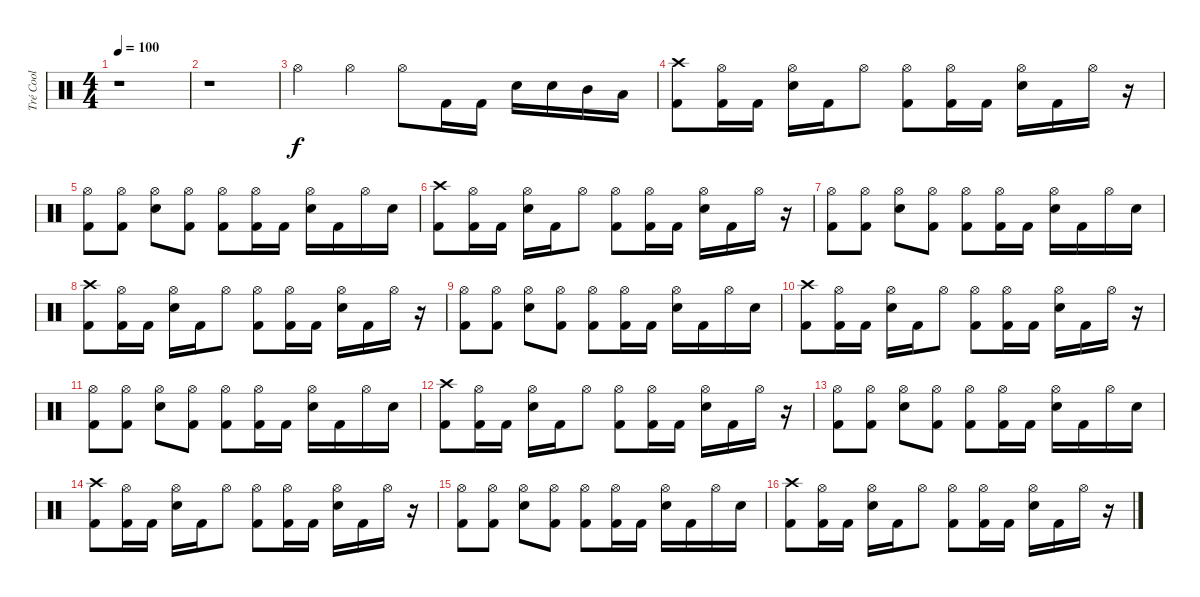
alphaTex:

\track ("Tré Cool" "Tré Cool") {instrument percussion}
\staff {score}
\articulation defaults
\ts (4 4)
\tempo 100
\clef neutral
\ks c
r.1{dy f} |
r.1 |
"Hi-Hat (open)".4 "Hi-Hat (open)".4 "Hi-Hat (open)".8 "Kick (hit) 2".16 "Kick (hit) 2".16 "Electric Snare (hit)".16 "Electric Snare (hit)".16 "Mid Tom (hit)".16 "Low Tom (hit)".16 |
("Crash high (hit)" "Kick (hit) 2").8 ("Hi-Hat (open)" "Kick (hit) 2").16 "Kick (hit) 2".16 ("Hi-Hat (open)" "Electric Snare (hit)").16 "Kick (hit) 2".16 "Hi-Hat (open)".8 ("Hi-Hat (open)" "Kick (hit) 2").8 ("Hi-Hat (open)" "Kick (hit) 2").16 "Kick (hit) 2".16 ("Hi-Hat (open)" "Electric Snare (hit)").16 "Kick (hit) 2".16 "Hi-Hat (open)".16 r.16 |
("Hi-Hat (open)" "Kick (hit) 2").8 ("Hi-Hat (open)" "Kick (hit) 2").8 ("Hi-Hat (open)" "Electric Snare (hit)").8 ("Hi-Hat (open)" "Kick (hit) 2").8 ("Hi-Hat (open)" "Kick (hit) 2").8 ("Hi-Hat (open)" "Kick (hit) 2").16 "Kick (hit) 2".16 ("Hi-Hat (open)" "Electric Snare (hit)").16 "Kick (hit) 2".16 "Hi-Hat (open)".16 "Electric Snare (hit)".16 |
("Crash high (hit)" "Kick (hit) 2").8 ("Hi-Hat (open)" "Kick (hit) 2").16 "Kick (hit) 2".16 ("Hi-Hat (open)" "Electric Snare (hit)").16 "Kick (hit) 2".16 "Hi-Hat (open)".8 ("Hi-Hat (open)" "Kick (hit) 2").8 ("Hi-Hat (open)" "Kick (hit) 2").16 "Kick (hit) 2".16 ("Hi-Hat (open)" "Electric Snare (hit)").16 "Kick (hit) 2".16 "Hi-Hat (open)".16 r.16 |
("Hi-Hat (open)" "Kick (hit) 2").8 ("Hi-Hat (open)" "Kick (hit) 2").8 ("Hi-Hat (open)" "Electric Snare (hit)").8 ("Hi-Hat (open)" "Kick (hit) 2").8 ("Hi-Hat (open)" "Kick (hit) 2").8 ("Hi-Hat (open)" "Kick (hit) 2").16 "Kick (hit) 2".16 ("Hi-Hat (open)" "Electric Snare (hit)").16 "Kick (hit) 2".16 "Hi-Hat (open)".16 "Electric Snare (hit)".16 |
("Crash high (hit)" "Kick (hit) 2").8 ("Hi-Hat (open)" "Kick (hit) 2").16 "Kick (hit) 2".16 ("Hi-Hat (open)" "Electric Snare (hit)").16 "Kick (hit) 2".16 "Hi-Hat (open)".8 ("Hi-Hat (open)" "Kick (hit) 2").8 ("Hi-Hat (open)" "Kick (hit) 2").16 "Kick (hit) 2".16 ("Hi-Hat (open)" "Electric Snare (hit)").16 "Kick (hit) 2".16 "Hi-Hat (open)".16 r.16 |
("Hi-Hat (open)" "Kick (hit) 2").8 ("Hi-Hat (open)" "Kick (hit) 2").8 ("Hi-Hat (open)" "Electric Snare (hit)").8 ("Hi-Hat (open)" "Kick (hit) 2").8 ("Hi-Hat (open)" "Kick (hit) 2").8 ("Hi-Hat (open)" "Kick (hit) 2").16 "Kick (hit) 2".16 ("Hi-Hat (open)" "Electric Snare (hit)").16 "Kick (hit) 2".16 "Hi-Hat (open)".16 "Electric Snare (hit)".16 |
("Crash high (hit)" "Kick (hit) 2").8 ("Hi-Hat (open)" "Kick (hit) 2").16 "Kick (hit) 2".16 ("Hi-Hat (open)" "Electric Snare (hit)").16 "Kick (hit) 2".16 "Hi-Hat (open)".8 ("Hi-Hat (open)" "Kick (hit) 2").8 ("Hi-Hat (open)" "Kick (hit) 2").16 "Kick (hit) 2".16 ("Hi-Hat (open)" "Electric Snare (hit)").16 "Kick (hit) 2".16 "Hi-Hat (open)".16 r.16 |
("Hi-Hat (open)" "Kick (hit) 2").8 ("Hi-Hat (open)" "Kick (hit) 2").8 ("Hi-Hat (open)" "Electric Snare (hit)").8 ("Hi-Hat (open)" "Kick (hit) 2").8 ("Hi-Hat (open)" "Kick (hit) 2").8 ("Hi-Hat (open)" "Kick (hit) 2").16 "Kick (hit) 2".16 ("Hi-Hat (open)" "Electric Snare (hit)").16 "Kick (hit) 2".16 "Hi-Hat (open)".16 "Electric Snare (hit)".16 |
("Crash high (hit)" "Kick (hit) 2").8 ("Hi-Hat (open)" "Kick (hit) 2").16 "Kick (hit) 2".16 ("Hi-Hat (open)" "Electric Snare (hit)").16 "Kick (hit) 2".16 "Hi-Hat (open)".8 ("Hi-Hat (open)" "Kick (hit) 2").8 ("Hi-Hat (open)" "Kick (hit) 2").16 "Kick (hit) 2".16 ("Hi-Hat (open)" "Electric Snare (hit)").16 "Kick (hit) 2".16 "Hi-Hat (open)".16 r.16 |
("Hi-Hat (open)" "Kick (hit) 2").8 ("Hi-Hat (open)" "Kick (hit) 2").8 ("Hi-Hat (open)" "Electric Snare (hit)").8 ("Hi-Hat (open)" "Kick (hit) 2").8 ("Hi-Hat (open)" "Kick (hit) 2").8 ("Hi-Hat (open)" "Kick (hit) 2").16 "Kick (hit) 2".16 ("Hi-Hat (open)" "Electric Snare (hit)").16 "Kick (hit) 2".16 "Hi-Hat (open)".16 "Electric Snare (hit)".16 |
("Crash high (hit)" "Kick (hit) 2").8 ("Hi-Hat (open)" "Kick (hit) 2").16 "Kick (hit) 2".16 ("Hi-Hat (open)" "Electric Snare (hit)").16 "Kick (hit) 2".16 "Hi-Hat (open)".8 ("Hi-Hat (open)" "Kick (hit) 2").8 ("Hi-Hat (open)" "Kick (hit) 2").16 "Kick (hit) 2".16 ("Hi-Hat (open)" "Electric Snare (hit)").16 "Kick (hit) 2".16 "Hi-Hat (open)".16 r.16 |
("Hi-Hat (open)" "Kick (hit) 2").8 ("Hi-Hat (open)" "Kick (hit) 2").8 ("Hi-Hat (open)" "Electric Snare (hit)").8 ("Hi-Hat (open)" "Kick (hit) 2").8 ("Hi-Hat (open)" "Kick (hit) 2").8 ("Hi-Hat (open)" "Kick (hit) 2").16 "Kick (hit) 2".16 ("Hi-Hat (open)" "Electric Snare (hit)").16 "Kick (hit) 2".16 "Hi-Hat (open)".16 "Electric Snare (hit)".16 |
("Crash high (hit)" "Kick (hit) 2").8 ("Hi-Hat (open)" "Kick (hit) 2").16 "Kick (hit) 2".16 ("Hi-Hat (open)" "Electric Snare (hit)").16 "Kick (hit) 2".16 "Hi-Hat (open)".8 ("Hi-Hat (open)" "Kick (hit) 2").8 ("Hi-Hat (open)" "Kick (hit) 2").16 "Kick (hit) 2".16 ("Hi-Hat (open)" "Electric Snare (hit)").16 "Kick (hit) 2".16 "Hi-Hat (open)".16 r.16
